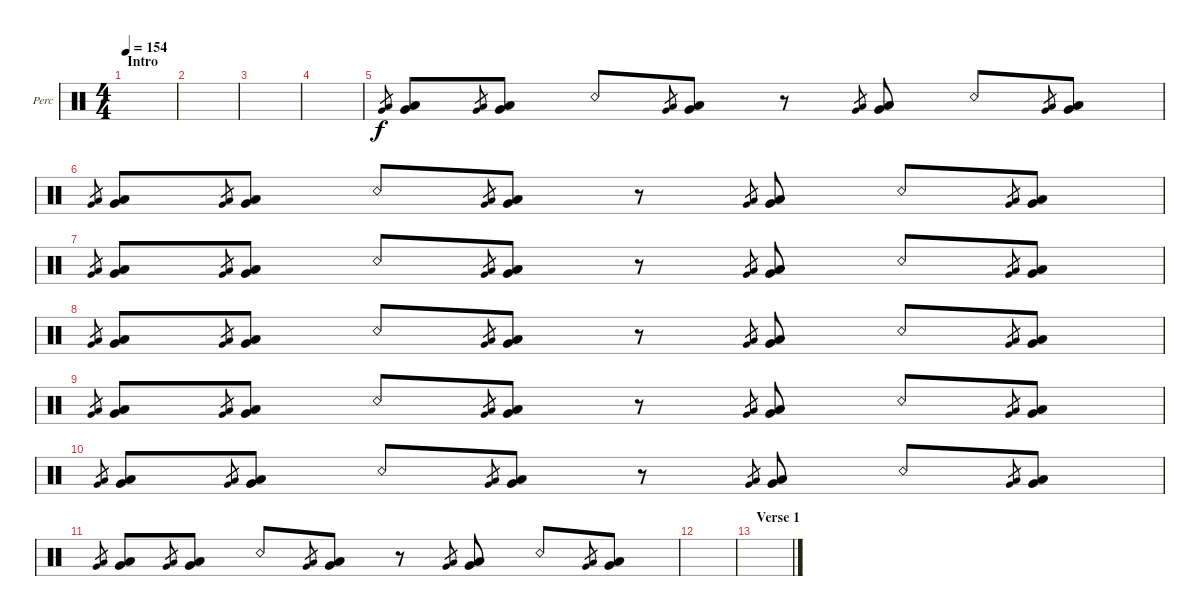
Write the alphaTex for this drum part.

\defaultSystemsLayout 4
\bracketExtendMode groupsimilarinstruments
\firstSystemTrackNameOrientation horizontal
\otherSystemsTrackNameOrientation horizontal
\track ("Percussion 1" "Perc") {instrument percussion}
\staff {score}
\articulation defaults
\ts (4 4)
\section ("" "Intro")
\tempo 154
\clef neutral
\scale
0.474178
\ks c
|
\scale
0.262911 |
\scale
0.262911 |
\scale
0.333333 |
\scale
0.333333 ("Low Tom (hit)" "Very Low Tom (hit)").8{gr} ("Low Tom (hit)" "Very Low Tom (hit)").8 ("Low Tom (hit)" "Very Low Tom (hit)").8{gr} ("Low Tom (hit)" "Very Low Tom (hit)").8 "Snare (rim shot)".8 ("Low Tom (hit)" "Very Low Tom (hit)").8{gr} ("Low Tom (hit)" "Very Low Tom (hit)").8 r.8 ("Low Tom (hit)" "Very Low Tom (hit)").8{gr} ("Low Tom (hit)" "Very Low Tom (hit)").8 "Snare (rim shot)".8 ("Low Tom (hit)" "Very Low Tom (hit)").8{gr} ("Low Tom (hit)" "Very Low Tom (hit)").8 |
\scale
0.333333 ("Low Tom (hit)" "Very Low Tom (hit)").8{gr} ("Low Tom (hit)" "Very Low Tom (hit)").8 ("Low Tom (hit)" "Very Low Tom (hit)").8{gr} ("Low Tom (hit)" "Very Low Tom (hit)").8 "Snare (rim shot)".8 ("Low Tom (hit)" "Very Low Tom (hit)").8{gr} ("Low Tom (hit)" "Very Low Tom (hit)").8 r.8 ("Low Tom (hit)" "Very Low Tom (hit)").8{gr} ("Low Tom (hit)" "Very Low Tom (hit)").8 "Snare (rim shot)".8 ("Low Tom (hit)" "Very Low Tom (hit)").8{gr} ("Low Tom (hit)" "Very Low Tom (hit)").8 |
\scale
0.333333 ("Low Tom (hit)" "Very Low Tom (hit)").8{gr} ("Low Tom (hit)" "Very Low Tom (hit)").8 ("Low Tom (hit)" "Very Low Tom (hit)").8{gr} ("Low Tom (hit)" "Very Low Tom (hit)").8 "Snare (rim shot)".8 ("Low Tom (hit)" "Very Low Tom (hit)").8{gr} ("Low Tom (hit)" "Very Low Tom (hit)").8 r.8 ("Low Tom (hit)" "Very Low Tom (hit)").8{gr} ("Low Tom (hit)" "Very Low Tom (hit)").8 "Snare (rim shot)".8 ("Low Tom (hit)" "Very Low Tom (hit)").8{gr} ("Low Tom (hit)" "Very Low Tom (hit)").8 |
\scale
0.333333 ("Low Tom (hit)" "Very Low Tom (hit)").8{gr} ("Low Tom (hit)" "Very Low Tom (hit)").8 ("Low Tom (hit)" "Very Low Tom (hit)").8{gr} ("Low Tom (hit)" "Very Low Tom (hit)").8 "Snare (rim shot)".8 ("Low Tom (hit)" "Very Low Tom (hit)").8{gr} ("Low Tom (hit)" "Very Low Tom (hit)").8 r.8 ("Low Tom (hit)" "Very Low Tom (hit)").8{gr} ("Low Tom (hit)" "Very Low Tom (hit)").8 "Snare (rim shot)".8 ("Low Tom (hit)" "Very Low Tom (hit)").8{gr} ("Low Tom (hit)" "Very Low Tom (hit)").8 |
\scale
0.333333 ("Low Tom (hit)" "Very Low Tom (hit)").8{gr} ("Low Tom (hit)" "Very Low Tom (hit)").8 ("Low Tom (hit)" "Very Low Tom (hit)").8{gr} ("Low Tom (hit)" "Very Low Tom (hit)").8 "Snare (rim shot)".8 ("Low Tom (hit)" "Very Low Tom (hit)").8{gr} ("Low Tom (hit)" "Very Low Tom (hit)").8 r.8 ("Low Tom (hit)" "Very Low Tom (hit)").8{gr} ("Low Tom (hit)" "Very Low Tom (hit)").8 "Snare (rim shot)".8 ("Low Tom (hit)" "Very Low Tom (hit)").8{gr} ("Low Tom (hit)" "Very Low Tom (hit)").8 |
\scale
0.333333 ("Low Tom (hit)" "Very Low Tom (hit)").8{gr} ("Low Tom (hit)" "Very Low Tom (hit)").8 ("Low Tom (hit)" "Very Low Tom (hit)").8{gr} ("Low Tom (hit)" "Very Low Tom (hit)").8 "Snare (rim shot)".8 ("Low Tom (hit)" "Very Low Tom (hit)").8{gr} ("Low Tom (hit)" "Very Low Tom (hit)").8 r.8 ("Low Tom (hit)" "Very Low Tom (hit)").8{gr} ("Low Tom (hit)" "Very Low Tom (hit)").8 "Snare (rim shot)".8 ("Low Tom (hit)" "Very Low Tom (hit)").8{gr} ("Low Tom (hit)" "Very Low Tom (hit)").8 |
\scale
0.333333 ("Low Tom (hit)" "Very Low Tom (hit)").8{gr} ("Low Tom (hit)" "Very Low Tom (hit)").8 ("Low Tom (hit)" "Very Low Tom (hit)").8{gr} ("Low Tom (hit)" "Very Low Tom (hit)").8 "Snare (rim shot)".8 ("Low Tom (hit)" "Very Low Tom (hit)").8{gr} ("Low Tom (hit)" "Very Low Tom (hit)").8 r.8 ("Low Tom (hit)" "Very Low Tom (hit)").8{gr} ("Low Tom (hit)" "Very Low Tom (hit)").8 "Snare (rim shot)".8 ("Low Tom (hit)" "Very Low Tom (hit)").8{gr} ("Low Tom (hit)" "Very Low Tom (hit)").8 |
\scale
0.333333 |
\section ("" "Verse 1")
